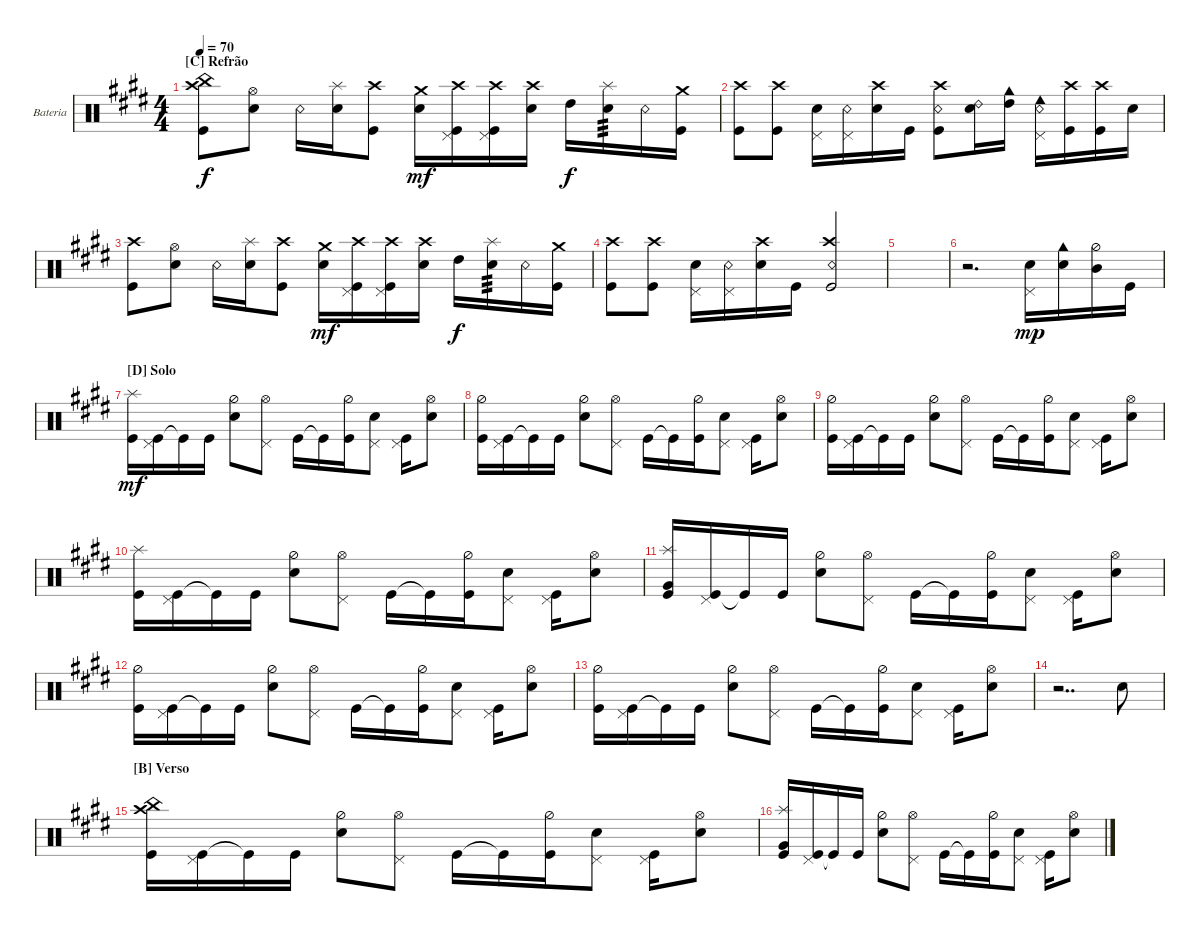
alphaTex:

\defaultSystemsLayout 4
\bracketExtendMode groupsimilarinstruments
\firstSystemTrackNameOrientation horizontal
\otherSystemsTrackNameOrientation horizontal
\track ("Bateria" "Bateria") {instrument percussion}
\staff {score}
\articulation defaults
\ts (4 4)
\section ("C" "Refrão")
\tempo 70
\clef neutral
\scale
0.5
\ks e
("Kick (hit)" "Crash high (hit)" "China (hit)").8{dy f} ("Snare (hit) 2" "Hi-Hat (open)").8 "Snare (rim shot)".16 ("Snare (hit) 2" "Splash (hit)").16 ("Kick (hit)" "Crash high (hit)").8 ("Snare (hit) 2" "Crash medium (hit)").16{dy mf} ("Kick (hit)" "Pedal Hi-Hat (hit)" "Crash high (hit)").16 ("Kick (hit)" "Pedal Hi-Hat (hit)" "Crash high (hit)").16 ("Snare (hit) 2" "Crash high (hit)").16 "High Tom (hit)".16{dy f} ("Snare (hit) 2" "Splash (hit)").16{tp 3} "Snare (rim shot)".16 ("Kick (hit)" "Crash medium (hit)").16 |
\scale
0.5 ("Kick (hit)" "Crash high (hit)").8 ("Kick (hit)" "Crash high (hit)").8 ("Snare (hit) 2" "Pedal Hi-Hat (hit)").16 ("Snare (rim shot)" "Pedal Hi-Hat (hit)").16 ("Snare (hit) 2" "Crash high (hit)").16 "Kick (hit)".16 ("Kick (hit)" "Snare (rim shot)" "Crash high (hit)").8 ("Ride (bell) 2" "Snare (hit) 2").16 ("High Tom (hit)" "Cowbell high (hit)").16 ("Snare (rim shot)" "Cowbell low (hit)" "Pedal Hi-Hat (hit)").16 ("Kick (hit)" "Crash high (hit)").16 ("Kick (hit)" "Crash high (hit)").16 "Snare (hit) 2".16 |
\scale
0.5 ("Kick (hit)" "Crash high (hit)").8 ("Snare (hit) 2" "Hi-Hat (open)").8 "Snare (rim shot)".16 ("Snare (hit) 2" "Splash (hit)").16 ("Kick (hit)" "Crash high (hit)").8 ("Snare (hit) 2" "Crash medium (hit)").16{dy mf} ("Kick (hit)" "Pedal Hi-Hat (hit)" "Crash high (hit)").16 ("Kick (hit)" "Pedal Hi-Hat (hit)" "Crash high (hit)").16 ("Snare (hit) 2" "Crash high (hit)").16 "High Tom (hit)".16{dy f} ("Snare (hit) 2" "Splash (hit)").16{tp 3} "Snare (rim shot)".16 ("Kick (hit)" "Crash medium (hit)").16 |
\scale
0.5 ("Kick (hit)" "Crash high (hit)").8 ("Kick (hit)" "Crash high (hit)").8 ("Snare (hit) 2" "Pedal Hi-Hat (hit)").16 ("Snare (rim shot)" "Pedal Hi-Hat (hit)").16 ("Snare (hit) 2" "Crash high (hit)").16 "Kick (hit)".16 ("Kick (hit)" "Snare (rim shot)" "Crash high (hit)").2 |
\scale
0.5 |
\scale
0.5 r.2{d} ("Snare (hit) 2" "Pedal Hi-Hat (hit)").16{dy mp} ("Snare (hit) 2" "Cowbell high (hit)").16 ("Mid Tom (hit)" "Hi-Hat (half)").16 "Kick (hit)".16 |
\section ("D" "Solo")
\scale
0.5 ("Kick (hit)" "Splash (hit)").16{dy mf} ("Kick (hit)" "Pedal Hi-Hat (hit)").16 "Kick (hit)"{t}.16 "Kick (hit)".16 ("Snare (hit) 2" "Hi-Hat (half)").8 ("Hi-Hat (open)" "Pedal Hi-Hat (hit)").8 "Kick (hit)".16 "Kick (hit)"{t}.16 ("Kick (hit)" "Hi-Hat (half)").16 ("Snare (hit) 2" "Pedal Hi-Hat (hit)").8 ("Kick (hit)" "Pedal Hi-Hat (hit)").16 ("Snare (hit) 2" "Hi-Hat (open)").8 |
\scale
0.5 ("Kick (hit)" "Hi-Hat (half)").16 ("Kick (hit)" "Pedal Hi-Hat (hit)").16 "Kick (hit)"{t}.16 "Kick (hit)".16 ("Snare (hit) 2" "Hi-Hat (half)").8 ("Hi-Hat (open)" "Pedal Hi-Hat (hit)").8 "Kick (hit)".16 "Kick (hit)"{t}.16 ("Kick (hit)" "Hi-Hat (half)").16 ("Snare (hit) 2" "Pedal Hi-Hat (hit)").8 ("Kick (hit)" "Pedal Hi-Hat (hit)").16 ("Snare (hit) 2" "Hi-Hat (open)").8 |
\scale
0.5 ("Kick (hit)" "Hi-Hat (half)").16 ("Kick (hit)" "Pedal Hi-Hat (hit)").16 "Kick (hit)"{t}.16 "Kick (hit)".16 ("Snare (hit) 2" "Hi-Hat (half)").8 ("Hi-Hat (open)" "Pedal Hi-Hat (hit)").8 "Kick (hit)".16 "Kick (hit)"{t}.16 ("Kick (hit)" "Hi-Hat (half)").16 ("Snare (hit) 2" "Pedal Hi-Hat (hit)").8 ("Kick (hit)" "Pedal Hi-Hat (hit)").16 ("Snare (hit) 2" "Hi-Hat (open)").8 |
\scale
0.5 ("Kick (hit)" "Splash (hit)").16 ("Kick (hit)" "Pedal Hi-Hat (hit)").16 "Kick (hit)"{t}.16 "Kick (hit)".16 ("Snare (hit) 2" "Hi-Hat (half)").8 ("Hi-Hat (open)" "Pedal Hi-Hat (hit)").8 "Kick (hit)".16 "Kick (hit)"{t}.16 ("Kick (hit)" "Hi-Hat (half)").16 ("Snare (hit) 2" "Pedal Hi-Hat (hit)").8 ("Kick (hit)" "Pedal Hi-Hat (hit)").16 ("Snare (hit) 2" "Hi-Hat (open)").8 |
\scale
0.5 ("Kick (hit)" "Very Low Tom (hit)" "Splash (hit)").16 ("Kick (hit)" "Pedal Hi-Hat (hit)").16 "Kick (hit)"{t}.16 "Kick (hit)".16 ("Snare (hit) 2" "Hi-Hat (half)").8 ("Hi-Hat (open)" "Pedal Hi-Hat (hit)").8 "Kick (hit)".16 "Kick (hit)"{t}.16 ("Kick (hit)" "Hi-Hat (half)").16 ("Snare (hit) 2" "Pedal Hi-Hat (hit)").8 ("Kick (hit)" "Pedal Hi-Hat (hit)").16 ("Snare (hit) 2" "Hi-Hat (open)").8 |
\scale
0.5 ("Kick (hit)" "Hi-Hat (half)").16 ("Kick (hit)" "Pedal Hi-Hat (hit)").16 "Kick (hit)"{t}.16 "Kick (hit)".16 ("Snare (hit) 2" "Hi-Hat (half)").8 ("Hi-Hat (open)" "Pedal Hi-Hat (hit)").8 "Kick (hit)".16 "Kick (hit)"{t}.16 ("Kick (hit)" "Hi-Hat (half)").16 ("Snare (hit) 2" "Pedal Hi-Hat (hit)").8 ("Kick (hit)" "Pedal Hi-Hat (hit)").16 ("Snare (hit) 2" "Hi-Hat (open)").8 |
\scale
0.5 ("Kick (hit)" "Hi-Hat (half)").16 ("Kick (hit)" "Pedal Hi-Hat (hit)").16 "Kick (hit)"{t}.16 "Kick (hit)".16 ("Snare (hit) 2" "Hi-Hat (half)").8 ("Hi-Hat (open)" "Pedal Hi-Hat (hit)").8 "Kick (hit)".16 "Kick (hit)"{t}.16 ("Kick (hit)" "Hi-Hat (half)").16 ("Snare (hit) 2" "Pedal Hi-Hat (hit)").8 ("Kick (hit)" "Pedal Hi-Hat (hit)").16 ("Snare (hit) 2" "Hi-Hat (open)").8 |
\scale
0.5 r.2{dd} "Snare (hit) 2".8 |
\section ("B" "Verso")
\scale
0.5 ("Kick (hit)" "Crash high (hit)" "China (hit)").16 ("Kick (hit)" "Pedal Hi-Hat (hit)").16 "Kick (hit)"{t}.16 "Kick (hit)".16 ("Snare (hit) 2" "Hi-Hat (half)").8 ("Hi-Hat (open)" "Pedal Hi-Hat (hit)").8 "Kick (hit)".16 "Kick (hit)"{t}.16 ("Kick (hit)" "Hi-Hat (half)").16 ("Snare (hit) 2" "Pedal Hi-Hat (hit)").8 ("Kick (hit)" "Pedal Hi-Hat (hit)").16 ("Snare (hit) 2" "Hi-Hat (open)").8 |
\scale
0.5 ("Kick (hit)" "Very Low Tom (hit)" "Splash (hit)").16 ("Kick (hit)" "Pedal Hi-Hat (hit)").16 "Kick (hit)"{t}.16 "Kick (hit)".16 ("Snare (hit) 2" "Hi-Hat (half)").8 ("Hi-Hat (open)" "Pedal Hi-Hat (hit)").8 "Kick (hit)".16 "Kick (hit)"{t}.16 ("Kick (hit)" "Hi-Hat (half)").16 ("Snare (hit) 2" "Pedal Hi-Hat (hit)").8 ("Kick (hit)" "Pedal Hi-Hat (hit)").16 ("Snare (hit) 2" "Hi-Hat (open)").8
